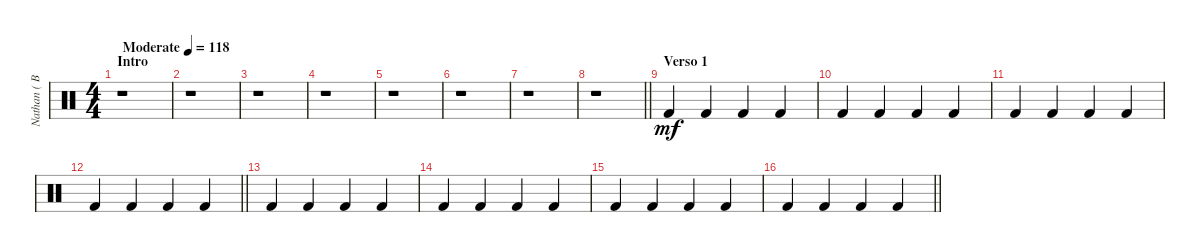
\track ("Nathan ( Bateria )" "Nathan ( B") {instrument percussion}
\staff {score}
\articulation defaults
\ts (4 4)
\section ("" "Intro")
\tempo (118 "Moderate")
\clef neutral
\ks c
r.1{dy mf} |
r.1 |
r.1 |
r.1 |
r.1 |
r.1 |
r.1 |
\barLineRight lightlight
r.1 |
\section ("" "Verso 1")
"Kick (hit) 2".4 "Kick (hit) 2".4 "Kick (hit) 2".4 "Kick (hit) 2".4 |
"Kick (hit) 2".4 "Kick (hit) 2".4 "Kick (hit) 2".4 "Kick (hit) 2".4 |
"Kick (hit) 2".4 "Kick (hit) 2".4 "Kick (hit) 2".4 "Kick (hit) 2".4 |
\barLineRight lightlight "Kick (hit) 2".4 "Kick (hit) 2".4 "Kick (hit) 2".4 "Kick (hit) 2".4
|
"Kick (hit) 2".4 "Kick (hit) 2".4 "Kick (hit) 2".4 "Kick (hit) 2".4 |
"Kick (hit) 2".4 "Kick (hit) 2".4 "Kick (hit) 2".4 "Kick (hit) 2".4 |
"Kick (hit) 2".4 "Kick (hit) 2".4 "Kick (hit) 2".4 "Kick (hit) 2".4 |
\barLineRight lightlight "Kick (hit) 2".4 "Kick (hit) 2".4 "Kick (hit) 2".4 "Kick (hit) 2".4
